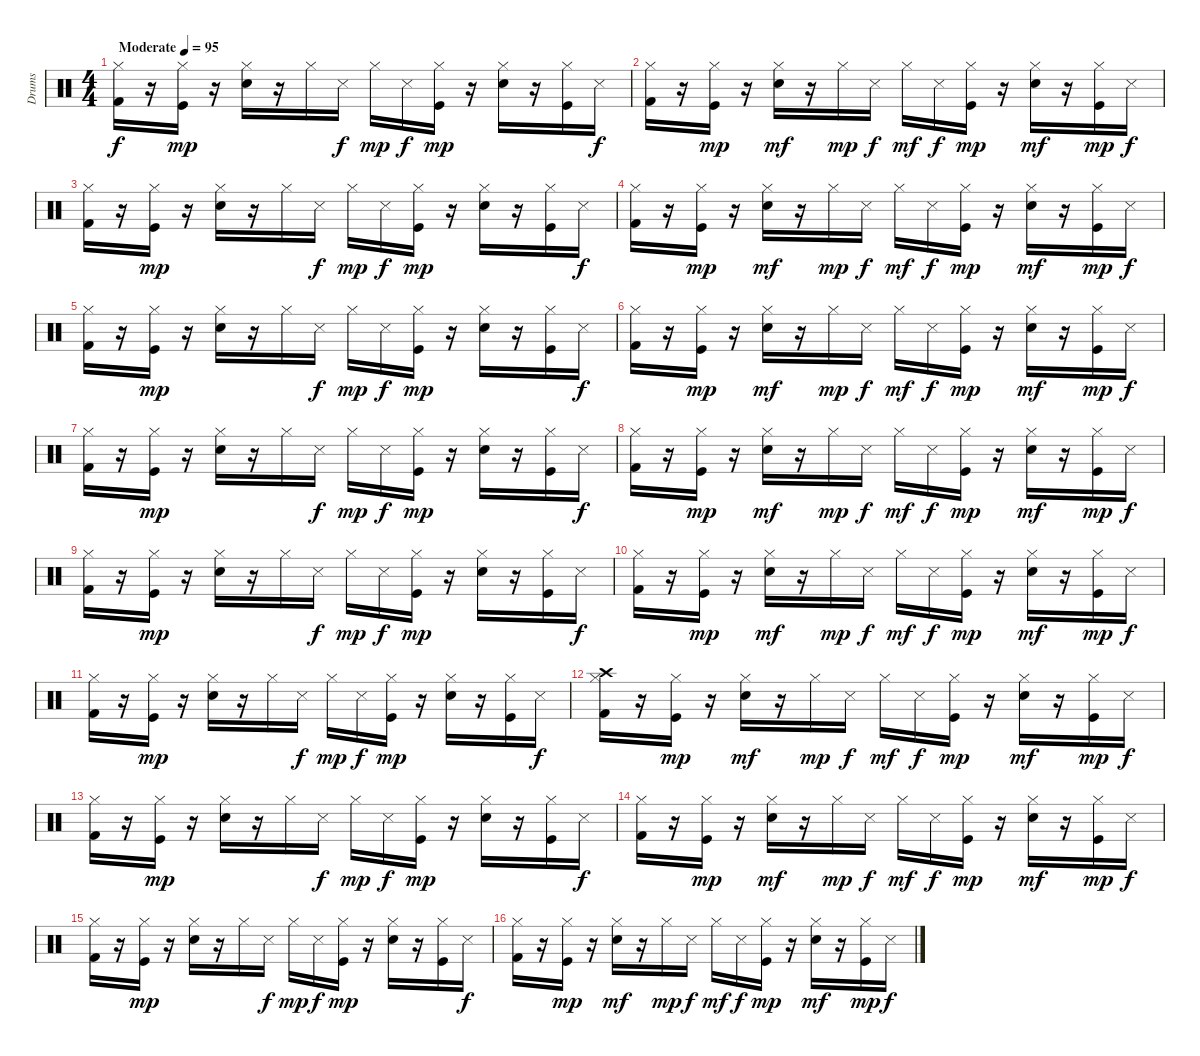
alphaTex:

\track ("Drums" "Drums") {instrument percussion}
\staff {score}
\articulation defaults
\ts (4 4)
\tempo (95 "Moderate")
\clef neutral
\ks c
("Kick (hit) 2" "Hi-Hat (closed)").16{dy f} r.16 ("Kick (hit)" "Hi-Hat (closed)").16{dy mp} r.16 ("Snare (hit) 2" "Hi-Hat (closed)").16 r.16 "Hi-Hat (closed)".16 "Snare (side stick) 3".16{dy f} "Hi-Hat (closed)".16{dy mp} "Snare (side stick) 3".16{dy f} ("Kick (hit)" "Hi-Hat (closed)").16{dy mp} r.16 ("Snare (hit) 2" "Hi-Hat (closed)").16 r.16 ("Kick (hit)" "Hi-Hat (closed)").16 "Snare (side stick) 3".16{dy f} |
("Kick (hit) 2" "Hi-Hat (closed)").16 r.16 ("Kick (hit)" "Hi-Hat (closed)").16{dy mp} r.16 ("Snare (hit) 2" "Hi-Hat (closed)").16{dy mf} r.16 "Hi-Hat (closed)".16{dy mp} "Snare (side stick) 3".16{dy f} "Hi-Hat (closed)".16{dy mf} "Snare (side stick) 3".16{dy f} ("Kick (hit)" "Hi-Hat (closed)").16{dy mp} r.16 ("Snare (hit) 2" "Hi-Hat (closed)").16{dy mf} r.16 ("Kick (hit)" "Hi-Hat (closed)").16{dy mp} "Snare (side stick) 3".16{dy f} |
("Kick (hit) 2" "Hi-Hat (closed)").16 r.16 ("Kick (hit)" "Hi-Hat (closed)").16{dy mp} r.16 ("Snare (hit) 2" "Hi-Hat (closed)").16 r.16 "Hi-Hat (closed)".16 "Snare (side stick) 3".16{dy f} "Hi-Hat (closed)".16{dy mp} "Snare (side stick) 3".16{dy f} ("Kick (hit)" "Hi-Hat (closed)").16{dy mp} r.16 ("Snare (hit) 2" "Hi-Hat (closed)").16 r.16 ("Kick (hit)" "Hi-Hat (closed)").16 "Snare (side stick) 3".16{dy f} |
("Kick (hit) 2" "Hi-Hat (closed)").16 r.16 ("Kick (hit)" "Hi-Hat (closed)").16{dy mp} r.16 ("Snare (hit) 2" "Hi-Hat (closed)").16{dy mf} r.16 "Hi-Hat (closed)".16{dy mp} "Snare (side stick) 3".16{dy f} "Hi-Hat (closed)".16{dy mf} "Snare (side stick) 3".16{dy f} ("Kick (hit)" "Hi-Hat (closed)").16{dy mp} r.16 ("Snare (hit) 2" "Hi-Hat (closed)").16{dy mf} r.16 ("Kick (hit)" "Hi-Hat (closed)").16{dy mp} "Snare (side stick) 3".16{dy f} |
("Kick (hit) 2" "Hi-Hat (closed)").16 r.16 ("Kick (hit)" "Hi-Hat (closed)").16{dy mp} r.16 ("Snare (hit) 2" "Hi-Hat (closed)").16 r.16 "Hi-Hat (closed)".16 "Snare (side stick) 3".16{dy f} "Hi-Hat (closed)".16{dy mp} "Snare (side stick) 3".16{dy f} ("Kick (hit)" "Hi-Hat (closed)").16{dy mp} r.16 ("Snare (hit) 2" "Hi-Hat (closed)").16 r.16 ("Kick (hit)" "Hi-Hat (closed)").16 "Snare (side stick) 3".16{dy f} |
("Kick (hit) 2" "Hi-Hat (closed)").16 r.16 ("Kick (hit)" "Hi-Hat (closed)").16{dy mp} r.16 ("Snare (hit) 2" "Hi-Hat (closed)").16{dy mf} r.16 "Hi-Hat (closed)".16{dy mp} "Snare (side stick) 3".16{dy f} "Hi-Hat (closed)".16{dy mf} "Snare (side stick) 3".16{dy f} ("Kick (hit)" "Hi-Hat (closed)").16{dy mp} r.16 ("Snare (hit) 2" "Hi-Hat (closed)").16{dy mf} r.16 ("Kick (hit)" "Hi-Hat (closed)").16{dy mp} "Snare (side stick) 3".16{dy f} |
("Kick (hit) 2" "Hi-Hat (closed)").16 r.16 ("Kick (hit)" "Hi-Hat (closed)").16{dy mp} r.16 ("Snare (hit) 2" "Hi-Hat (closed)").16 r.16 "Hi-Hat (closed)".16 "Snare (side stick) 3".16{dy f} "Hi-Hat (closed)".16{dy mp} "Snare (side stick) 3".16{dy f} ("Kick (hit)" "Hi-Hat (closed)").16{dy mp} r.16 ("Snare (hit) 2" "Hi-Hat (closed)").16 r.16 ("Kick (hit)" "Hi-Hat (closed)").16 "Snare (side stick) 3".16{dy f} |
("Kick (hit) 2" "Hi-Hat (closed)").16 r.16 ("Kick (hit)" "Hi-Hat (closed)").16{dy mp} r.16 ("Snare (hit) 2" "Hi-Hat (closed)").16{dy mf} r.16 "Hi-Hat (closed)".16{dy mp} "Snare (side stick) 3".16{dy f} "Hi-Hat (closed)".16{dy mf} "Snare (side stick) 3".16{dy f} ("Kick (hit)" "Hi-Hat (closed)").16{dy mp} r.16 ("Snare (hit) 2" "Hi-Hat (closed)").16{dy mf} r.16 ("Kick (hit)" "Hi-Hat (closed)").16{dy mp} "Snare (side stick) 3".16{dy f} |
("Kick (hit) 2" "Hi-Hat (closed)").16 r.16 ("Kick (hit)" "Hi-Hat (closed)").16{dy mp} r.16 ("Snare (hit) 2" "Hi-Hat (closed)").16 r.16 "Hi-Hat (closed)".16 "Snare (side stick) 3".16{dy f} "Hi-Hat (closed)".16{dy mp} "Snare (side stick) 3".16{dy f} ("Kick (hit)" "Hi-Hat (closed)").16{dy mp} r.16 ("Snare (hit) 2" "Hi-Hat (closed)").16 r.16 ("Kick (hit)" "Hi-Hat (closed)").16 "Snare (side stick) 3".16{dy f} |
("Kick (hit) 2" "Hi-Hat (closed)").16 r.16 ("Kick (hit)" "Hi-Hat (closed)").16{dy mp} r.16 ("Snare (hit) 2" "Hi-Hat (closed)").16{dy mf} r.16 "Hi-Hat (closed)".16{dy mp} "Snare (side stick) 3".16{dy f} "Hi-Hat (closed)".16{dy mf} "Snare (side stick) 3".16{dy f} ("Kick (hit)" "Hi-Hat (closed)").16{dy mp} r.16 ("Snare (hit) 2" "Hi-Hat (closed)").16{dy mf} r.16 ("Kick (hit)" "Hi-Hat (closed)").16{dy mp} "Snare (side stick) 3".16{dy f} |
("Kick (hit) 2" "Hi-Hat (closed)").16 r.16 ("Kick (hit)" "Hi-Hat (closed)").16{dy mp} r.16 ("Snare (hit) 2" "Hi-Hat (closed)").16 r.16 "Hi-Hat (closed)".16 "Snare (side stick) 3".16{dy f} "Hi-Hat (closed)".16{dy mp} "Snare (side stick) 3".16{dy f} ("Kick (hit)" "Hi-Hat (closed)").16{dy mp} r.16 ("Snare (hit) 2" "Hi-Hat (closed)").16 r.16 ("Kick (hit)" "Hi-Hat (closed)").16 "Snare (side stick) 3".16{dy f} |
("Kick (hit) 2" "Hi-Hat (closed)" "Crash high (hit)").16 r.16 ("Kick (hit)" "Hi-Hat (closed)").16{dy mp} r.16 ("Snare (hit) 2" "Hi-Hat (closed)").16{dy mf} r.16 "Hi-Hat (closed)".16{dy mp} "Snare (side stick) 3".16{dy f} "Hi-Hat (closed)".16{dy mf} "Snare (side stick) 3".16{dy f} ("Kick (hit)" "Hi-Hat (closed)").16{dy mp} r.16 ("Snare (hit) 2" "Hi-Hat (closed)").16{dy mf} r.16 ("Kick (hit)" "Hi-Hat (closed)").16{dy mp} "Snare (side stick) 3".16{dy f} |
("Kick (hit) 2" "Hi-Hat (closed)").16 r.16 ("Kick (hit)" "Hi-Hat (closed)").16{dy mp} r.16 ("Snare (hit) 2" "Hi-Hat (closed)").16 r.16 "Hi-Hat (closed)".16 "Snare (side stick) 3".16{dy f} "Hi-Hat (closed)".16{dy mp} "Snare (side stick) 3".16{dy f} ("Kick (hit)" "Hi-Hat (closed)").16{dy mp} r.16 ("Snare (hit) 2" "Hi-Hat (closed)").16 r.16 ("Kick (hit)" "Hi-Hat (closed)").16 "Snare (side stick) 3".16{dy f} |
("Kick (hit) 2" "Hi-Hat (closed)").16 r.16 ("Kick (hit)" "Hi-Hat (closed)").16{dy mp} r.16 ("Snare (hit) 2" "Hi-Hat (closed)").16{dy mf} r.16 "Hi-Hat (closed)".16{dy mp} "Snare (side stick) 3".16{dy f} "Hi-Hat (closed)".16{dy mf} "Snare (side stick) 3".16{dy f} ("Kick (hit)" "Hi-Hat (closed)").16{dy mp} r.16 ("Snare (hit) 2" "Hi-Hat (closed)").16{dy mf} r.16 ("Kick (hit)" "Hi-Hat (closed)").16{dy mp} "Snare (side stick) 3".16{dy f} |
("Kick (hit) 2" "Hi-Hat (closed)").16 r.16 ("Kick (hit)" "Hi-Hat (closed)").16{dy mp} r.16 ("Snare (hit) 2" "Hi-Hat (closed)").16 r.16 "Hi-Hat (closed)".16 "Snare (side stick) 3".16{dy f} "Hi-Hat (closed)".16{dy mp} "Snare (side stick) 3".16{dy f} ("Kick (hit)" "Hi-Hat (closed)").16{dy mp} r.16 ("Snare (hit) 2" "Hi-Hat (closed)").16 r.16 ("Kick (hit)" "Hi-Hat (closed)").16 "Snare (side stick) 3".16{dy f} |
("Kick (hit) 2" "Hi-Hat (closed)").16 r.16 ("Kick (hit)" "Hi-Hat (closed)").16{dy mp} r.16 ("Snare (hit) 2" "Hi-Hat (closed)").16{dy mf} r.16 "Hi-Hat (closed)".16{dy mp} "Snare (side stick) 3".16{dy f} "Hi-Hat (closed)".16{dy mf} "Snare (side stick) 3".16{dy f} ("Kick (hit)" "Hi-Hat (closed)").16{dy mp} r.16 ("Snare (hit) 2" "Hi-Hat (closed)").16{dy mf} r.16 ("Kick (hit)" "Hi-Hat (closed)").16{dy mp} "Snare (side stick) 3".16{dy f}
